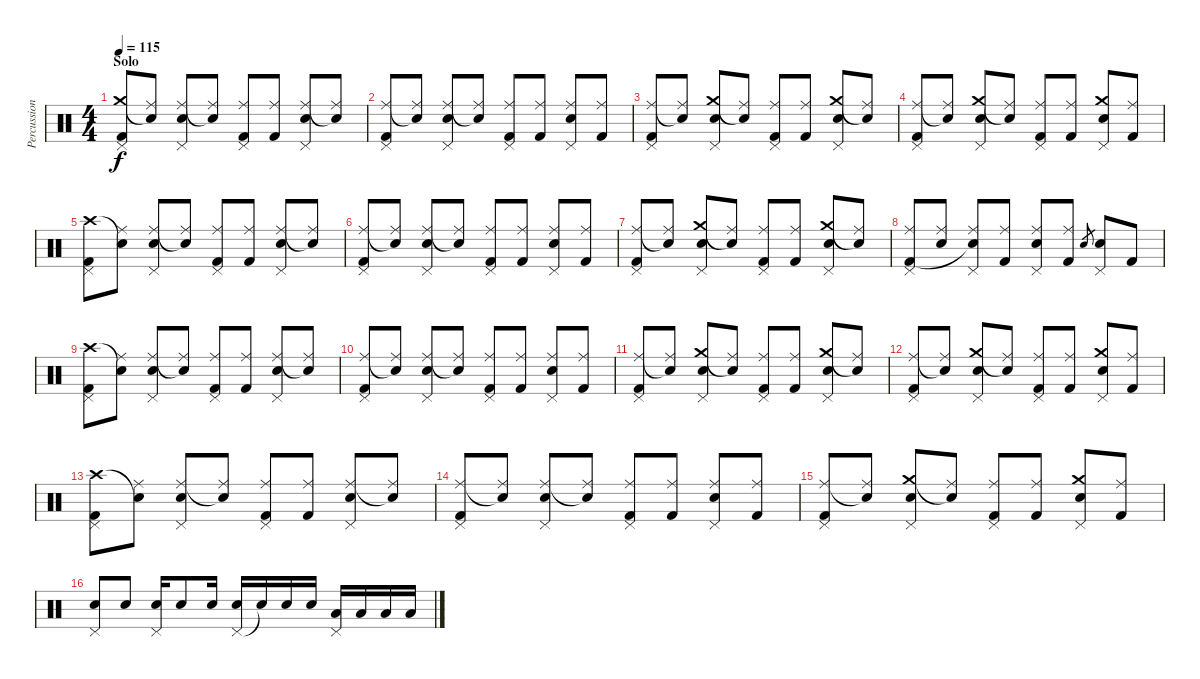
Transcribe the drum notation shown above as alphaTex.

\track ("Percussioni" "Percussion") {instrument percussion}
\staff {score}
\articulation defaults
\ts (4 4)
\section ("" "Solo")
\tempo 115
\clef neutral
\ks c
("Pedal Hi-Hat (hit)" "Crash medium (hit)" "Kick (hit) 2").8{dy f} ("Ride (middle)" "Snare (hit)"{t}).8 ("Pedal Hi-Hat (hit)" "Ride (middle)" "Electric Snare (hit)").8 ("Ride (middle)" "Snare (hit)"{t}).8 ("Pedal Hi-Hat (hit)" "Ride (middle)" "Kick (hit) 2").8 ("Ride (middle)" "Kick (hit) 2").8 ("Pedal Hi-Hat (hit)" "Ride (middle)" "Electric Snare (hit)").8 ("Ride (middle)" "Snare (hit)"{t}).8 |
("Pedal Hi-Hat (hit)" "Ride (middle)" "Kick (hit) 2").8 ("Ride (middle)" "Snare (hit)"{t}).8 ("Pedal Hi-Hat (hit)" "Ride (middle)" "Electric Snare (hit)").8 ("Ride (middle)" "Snare (hit)"{t}).8 ("Pedal Hi-Hat (hit)" "Ride (middle)" "Kick (hit) 2").8 ("Ride (middle)" "Kick (hit) 2").8 ("Pedal Hi-Hat (hit)" "Ride (middle)" "Electric Snare (hit)").8 ("Ride (middle)" "Kick (hit) 2").8 |
("Pedal Hi-Hat (hit)" "Ride (middle)" "Kick (hit) 2").8 ("Ride (middle)" "Snare (hit)"{t}).8 ("Pedal Hi-Hat (hit)" "Crash medium (hit)" "Electric Snare (hit)").8 ("Ride (middle)" "Snare (hit)"{t}).8 ("Pedal Hi-Hat (hit)" "Ride (middle)" "Kick (hit) 2").8 ("Ride (middle)" "Kick (hit) 2").8 ("Pedal Hi-Hat (hit)" "Crash medium (hit)" "Electric Snare (hit)").8 ("Ride (middle)" "Snare (hit)"{t}).8 |
("Pedal Hi-Hat (hit)" "Ride (middle)" "Kick (hit) 2").8 ("Ride (middle)" "Snare (hit)"{t}).8 ("Pedal Hi-Hat (hit)" "Crash medium (hit)" "Electric Snare (hit)").8 ("Ride (middle)" "Snare (hit)"{t}).8 ("Pedal Hi-Hat (hit)" "Ride (middle)" "Kick (hit) 2").8 ("Ride (middle)" "Kick (hit) 2").8 ("Pedal Hi-Hat (hit)" "Crash medium (hit)" "Electric Snare (hit)").8 ("Ride (middle)" "Kick (hit) 2").8 |
("Pedal Hi-Hat (hit)" "Crash high (hit)" "Kick (hit) 2").8 ("Ride (middle)" "Snare (hit)"{t}).8 ("Pedal Hi-Hat (hit)" "Ride (middle)" "Electric Snare (hit)").8 ("Ride (middle)" "Snare (hit)"{t}).8 ("Pedal Hi-Hat (hit)" "Ride (middle)" "Kick (hit) 2").8 ("Ride (middle)" "Kick (hit) 2").8 ("Pedal Hi-Hat (hit)" "Ride (middle)" "Electric Snare (hit)").8 ("Ride (middle)" "Snare (hit)"{t}).8 |
("Pedal Hi-Hat (hit)" "Ride (middle)" "Kick (hit) 2").8 ("Ride (middle)" "Snare (hit)"{t}).8 ("Pedal Hi-Hat (hit)" "Ride (middle)" "Electric Snare (hit)").8 ("Ride (middle)" "Snare (hit)"{t}).8 ("Pedal Hi-Hat (hit)" "Ride (middle)" "Kick (hit) 2").8 ("Ride (middle)" "Kick (hit) 2").8 ("Pedal Hi-Hat (hit)" "Ride (middle)" "Electric Snare (hit)").8 ("Ride (middle)" "Kick (hit) 2").8 |
("Pedal Hi-Hat (hit)" "Ride (middle)" "Kick (hit) 2").8 ("Ride (middle)" "Snare (hit)"{t}).8 ("Pedal Hi-Hat (hit)" "Crash medium (hit)" "Electric Snare (hit)").8 ("Ride (middle)" "Snare (hit)"{t}).8 ("Pedal Hi-Hat (hit)" "Ride (middle)" "Kick (hit) 2").8 ("Ride (middle)" "Kick (hit) 2").8 ("Pedal Hi-Hat (hit)" "Crash medium (hit)" "Electric Snare (hit)").8 ("Ride (middle)" "Snare (hit)"{t}).8 |
("Pedal Hi-Hat (hit)" "Ride (middle)" "Kick (hit) 2").8 ("Ride (middle)" "Electric Snare (hit)").8 ("Pedal Hi-Hat (hit)" "Ride (middle)" "Electric Snare (hit)"{t}).8 ("Ride (middle)" "Kick (hit) 2").8 ("Pedal Hi-Hat (hit)" "Ride (middle)" "Electric Snare (hit)").8 ("Ride (middle)" "Kick (hit) 2").8 "Electric Snare (hit)".8{gr} ("Pedal Hi-Hat (hit)" "Electric Snare (hit)").8 "Kick (hit) 2".8 |
("Pedal Hi-Hat (hit)" "Crash high (hit)" "Kick (hit) 2").8 ("Ride (middle)" "Snare (hit)"{t}).8 ("Pedal Hi-Hat (hit)" "Ride (middle)" "Electric Snare (hit)").8 ("Ride (middle)" "Snare (hit)"{t}).8 ("Pedal Hi-Hat (hit)" "Ride (middle)" "Kick (hit) 2").8 ("Ride (middle)" "Kick (hit) 2").8 ("Pedal Hi-Hat (hit)" "Ride (middle)" "Electric Snare (hit)").8 ("Ride (middle)" "Snare (hit)"{t}).8 |
("Pedal Hi-Hat (hit)" "Ride (middle)" "Kick (hit) 2").8 ("Ride (middle)" "Snare (hit)"{t}).8 ("Pedal Hi-Hat (hit)" "Ride (middle)" "Electric Snare (hit)").8 ("Ride (middle)" "Snare (hit)"{t}).8 ("Pedal Hi-Hat (hit)" "Ride (middle)" "Kick (hit) 2").8 ("Ride (middle)" "Kick (hit) 2").8 ("Pedal Hi-Hat (hit)" "Ride (middle)" "Electric Snare (hit)").8 ("Ride (middle)" "Kick (hit) 2").8 |
("Pedal Hi-Hat (hit)" "Ride (middle)" "Kick (hit) 2").8 ("Ride (middle)" "Snare (hit)"{t}).8 ("Pedal Hi-Hat (hit)" "Crash medium (hit)" "Electric Snare (hit)").8 ("Ride (middle)" "Snare (hit)"{t}).8 ("Pedal Hi-Hat (hit)" "Ride (middle)" "Kick (hit) 2").8 ("Ride (middle)" "Kick (hit) 2").8 ("Pedal Hi-Hat (hit)" "Crash medium (hit)" "Electric Snare (hit)").8 ("Ride (middle)" "Snare (hit)"{t}).8 |
("Pedal Hi-Hat (hit)" "Ride (middle)" "Kick (hit) 2").8 ("Ride (middle)" "Snare (hit)"{t}).8 ("Pedal Hi-Hat (hit)" "Crash medium (hit)" "Electric Snare (hit)").8 ("Ride (middle)" "Snare (hit)"{t}).8 ("Pedal Hi-Hat (hit)" "Ride (middle)" "Kick (hit) 2").8 ("Ride (middle)" "Kick (hit) 2").8 ("Pedal Hi-Hat (hit)" "Crash medium (hit)" "Electric Snare (hit)").8 ("Ride (middle)" "Kick (hit) 2").8 |
("Pedal Hi-Hat (hit)" "Crash high (hit)" "Kick (hit) 2").8 ("Ride (middle)" "Snare (hit)"{t}).8 ("Pedal Hi-Hat (hit)" "Ride (middle)" "Electric Snare (hit)").8 ("Ride (middle)" "Snare (hit)"{t}).8 ("Pedal Hi-Hat (hit)" "Ride (middle)" "Kick (hit) 2").8 ("Ride (middle)" "Kick (hit) 2").8 ("Pedal Hi-Hat (hit)" "Ride (middle)" "Electric Snare (hit)").8 ("Ride (middle)" "Snare (hit)"{t}).8 |
("Pedal Hi-Hat (hit)" "Ride (middle)" "Kick (hit) 2").8 ("Ride (middle)" "Snare (hit)"{t}).8 ("Pedal Hi-Hat (hit)" "Ride (middle)" "Electric Snare (hit)").8 ("Ride (middle)" "Snare (hit)"{t}).8 ("Pedal Hi-Hat (hit)" "Ride (middle)" "Kick (hit) 2").8 ("Ride (middle)" "Kick (hit) 2").8 ("Pedal Hi-Hat (hit)" "Ride (middle)" "Electric Snare (hit)").8 ("Ride (middle)" "Kick (hit) 2").8 |
("Pedal Hi-Hat (hit)" "Ride (middle)" "Kick (hit) 2").8 ("Ride (middle)" "Snare (hit)"{t}).8 ("Pedal Hi-Hat (hit)" "Crash medium (hit)" "Electric Snare (hit)").8 ("Ride (middle)" "Snare (hit)"{t}).8 ("Pedal Hi-Hat (hit)" "Ride (middle)" "Kick (hit) 2").8 ("Ride (middle)" "Kick (hit) 2").8 ("Pedal Hi-Hat (hit)" "Crash medium (hit)" "Electric Snare (hit)").8 ("Ride (middle)" "Kick (hit) 2").8 |
("Pedal Hi-Hat (hit)" "Electric Snare (hit)").8 "Electric Snare (hit)".8 ("Pedal Hi-Hat (hit)" "Electric Snare (hit)").16 "Electric Snare (hit)".8 "Electric Snare (hit)".16 ("Pedal Hi-Hat (hit)" "Electric Snare (hit)").16 "Electric Snare (hit)"{t}.16 "Electric Snare (hit)".16 "Electric Snare (hit)".16 ("Pedal Hi-Hat (hit)" "Low Tom (hit)").16 "Low Tom (hit)".16 "Low Floor Tom (hit)".16 "Low Floor Tom (hit)".16
